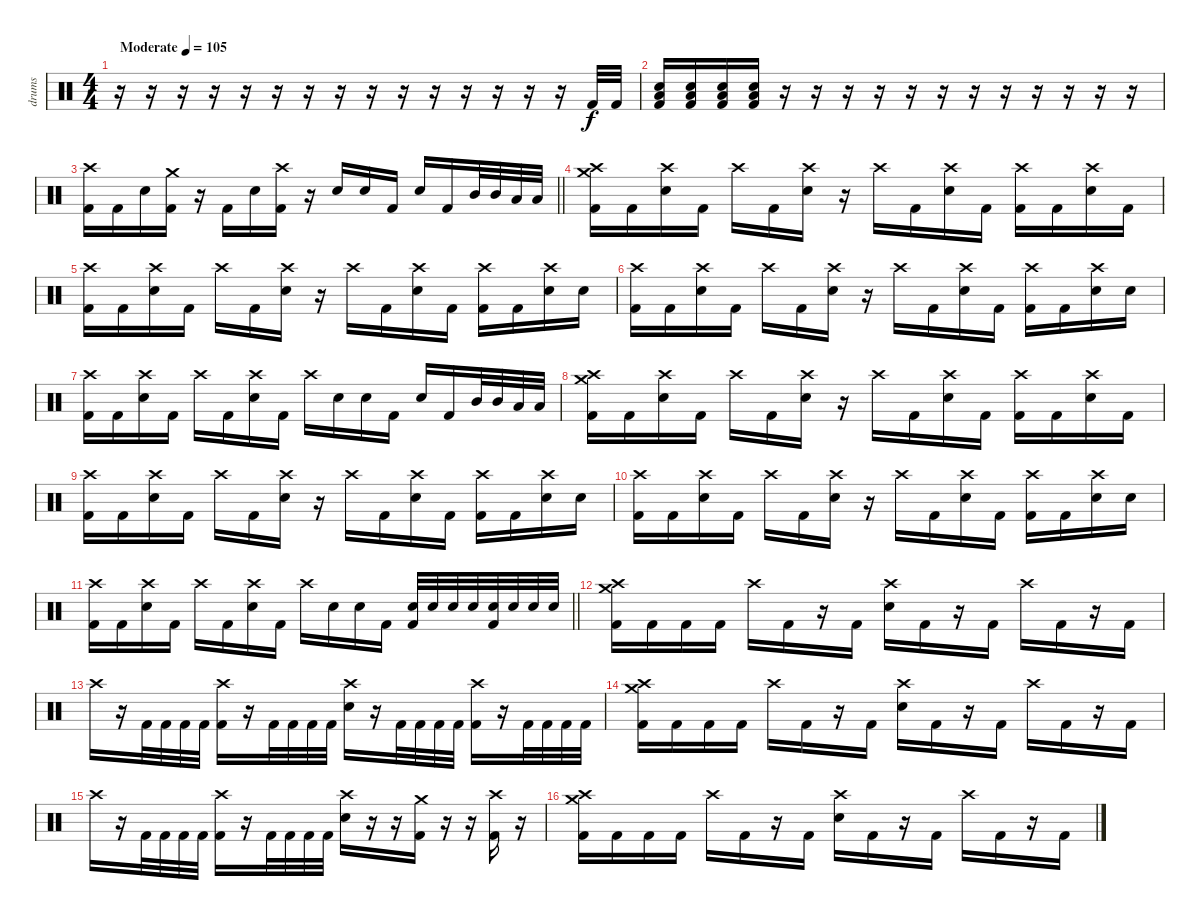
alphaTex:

\track ("drums" "drums") {instrument percussion}
\staff {score}
\articulation defaults
\ts (4 4)
\tempo (105 "Moderate")
\clef neutral
\ks c
r.16{dy f} r.16 r.16 r.16 r.16 r.16 r.16 r.16 r.16 r.16 r.16 r.16 r.16 r.16 r.16 "Kick (hit) 2".32 "Kick (hit) 2".32 |
("Kick (hit) 2" "Low Floor Tom (hit)" "Electric Snare (hit)").16 ("Kick (hit) 2" "Low Floor Tom (hit)" "Electric Snare (hit)").16 ("Kick (hit) 2" "Low Floor Tom (hit)" "Electric Snare (hit)").16 ("Kick (hit) 2" "Low Floor Tom (hit)" "Electric Snare (hit)").16 r.16 r.16 r.16 r.16 r.16 r.16 r.16 r.16 r.16 r.16 r.16 r.16 |
\barLineRight lightlight
("Crash high (hit)" "Kick (hit) 2").16 "Kick (hit) 2".16 "Electric Snare (hit)".16 ("Crash medium (hit)" "Kick (hit) 2").16 r.16 "Kick (hit) 2".16 "Electric Snare (hit)".16 ("Crash high (hit)" "Kick (hit) 2").16 r.16 "Electric Snare (hit)".16 "Electric Snare (hit)".16 "Kick (hit) 2".16 "Electric Snare (hit)".16 "Kick (hit) 2".16 "Mid Tom (hit)".32 "Mid Tom (hit)".32 "Low Tom (hit)".32 "Low Tom (hit)".32 |
\section ("" "")
("Crash medium (hit)" "Crash high (hit)" "Kick (hit) 2").16 "Kick (hit) 2".16 ("Crash high (hit)" "Electric Snare (hit)").16 "Kick (hit) 2".16 "Crash high (hit)".16 "Kick (hit) 2".16 ("Crash high (hit)" "Electric Snare (hit)").16 r.16 "Crash high (hit)".16 "Kick (hit) 2".16 ("Crash high (hit)" "Electric Snare (hit)").16 "Kick (hit) 2".16 ("Crash high (hit)" "Kick (hit) 2").16 "Kick (hit) 2".16 ("Crash high (hit)" "Electric Snare (hit)").16 "Kick (hit) 2".16 |
("Crash high (hit)" "Kick (hit) 2").16 "Kick (hit) 2".16 ("Crash high (hit)" "Electric Snare (hit)").16 "Kick (hit) 2".16 "Crash high (hit)".16 "Kick (hit) 2".16 ("Crash high (hit)" "Electric Snare (hit)").16 r.16 "Crash high (hit)".16 "Kick (hit) 2".16 ("Crash high (hit)" "Electric Snare (hit)").16 "Kick (hit) 2".16 ("Crash high (hit)" "Kick (hit) 2").16 "Kick (hit) 2".16 ("Crash high (hit)" "Electric Snare (hit)").16 "Electric Snare (hit)".16 |
("Crash high (hit)" "Kick (hit) 2").16 "Kick (hit) 2".16 ("Crash high (hit)" "Electric Snare (hit)").16 "Kick (hit) 2".16 "Crash high (hit)".16 "Kick (hit) 2".16 ("Crash high (hit)" "Electric Snare (hit)").16 r.16 "Crash high (hit)".16 "Kick (hit) 2".16 ("Crash high (hit)" "Electric Snare (hit)").16 "Kick (hit) 2".16 ("Crash high (hit)" "Kick (hit) 2").16 "Kick (hit) 2".16 ("Crash high (hit)" "Electric Snare (hit)").16 "Electric Snare (hit)".16 |
("Crash high (hit)" "Kick (hit) 2").16 "Kick (hit) 2".16 ("Crash high (hit)" "Electric Snare (hit)").16 "Kick (hit) 2".16 "Crash high (hit)".16 "Kick (hit) 2".16 ("Crash high (hit)" "Electric Snare (hit)").16 "Kick (hit) 2".16 "Crash high (hit)".16 "Electric Snare (hit)".16 "Electric Snare (hit)".16 "Kick (hit) 2".16 "Electric Snare (hit)".16 "Kick (hit) 2".16 "Mid Tom (hit)".32 "Mid Tom (hit)".32 "Low Tom (hit)".32 "Low Tom (hit)".32 |
("Crash medium (hit)" "Crash high (hit)" "Kick (hit) 2").16 "Kick (hit) 2".16 ("Crash high (hit)" "Electric Snare (hit)").16 "Kick (hit) 2".16 "Crash high (hit)".16 "Kick (hit) 2".16 ("Crash high (hit)" "Electric Snare (hit)").16 r.16 "Crash high (hit)".16 "Kick (hit) 2".16 ("Crash high (hit)" "Electric Snare (hit)").16 "Kick (hit) 2".16 ("Crash high (hit)" "Kick (hit) 2").16 "Kick (hit) 2".16 ("Crash high (hit)" "Electric Snare (hit)").16 "Kick (hit) 2".16 |
("Crash high (hit)" "Kick (hit) 2").16 "Kick (hit) 2".16 ("Crash high (hit)" "Electric Snare (hit)").16 "Kick (hit) 2".16 "Crash high (hit)".16 "Kick (hit) 2".16 ("Crash high (hit)" "Electric Snare (hit)").16 r.16 "Crash high (hit)".16 "Kick (hit) 2".16 ("Crash high (hit)" "Electric Snare (hit)").16 "Kick (hit) 2".16 ("Crash high (hit)" "Kick (hit) 2").16 "Kick (hit) 2".16 ("Crash high (hit)" "Electric Snare (hit)").16 "Electric Snare (hit)".16 |
("Crash high (hit)" "Kick (hit) 2").16 "Kick (hit) 2".16 ("Crash high (hit)" "Electric Snare (hit)").16 "Kick (hit) 2".16 "Crash high (hit)".16 "Kick (hit) 2".16 ("Crash high (hit)" "Electric Snare (hit)").16 r.16 "Crash high (hit)".16 "Kick (hit) 2".16 ("Crash high (hit)" "Electric Snare (hit)").16 "Kick (hit) 2".16 ("Crash high (hit)" "Kick (hit) 2").16 "Kick (hit) 2".16 ("Crash high (hit)" "Electric Snare (hit)").16 "Electric Snare (hit)".16 |
\barLineRight lightlight
("Crash high (hit)" "Kick (hit) 2").16 "Kick (hit) 2".16 ("Crash high (hit)" "Electric Snare (hit)").16 "Kick (hit) 2".16 "Crash high (hit)".16 "Kick (hit) 2".16 ("Crash high (hit)" "Electric Snare (hit)").16 "Kick (hit) 2".16 "Crash high (hit)".16 "Electric Snare (hit)".16 "Electric Snare (hit)".16 "Kick (hit) 2".16 ("Kick (hit) 2" "Electric Snare (hit)").32 "Electric Snare (hit)".32 "Electric Snare (hit)".32 "Electric Snare (hit)".32 ("Kick (hit) 2" "Electric Snare (hit)").32 "Electric Snare (hit)".32 "Electric Snare (hit)".32 "Electric Snare (hit)".32 |
\section ("" "")
("Crash medium (hit)" "Crash high (hit)" "Kick (hit) 2").16 "Kick (hit) 2".16 "Kick (hit) 2".16 "Kick (hit) 2".16 "Crash high (hit)".16 "Kick (hit) 2".16 r.16 "Kick (hit) 2".16 ("Crash high (hit)" "Electric Snare (hit)").16 "Kick (hit) 2".16 r.16 "Kick (hit) 2".16 "Crash high (hit)".16 "Kick (hit) 2".16 r.16 "Kick (hit) 2".16 |
"Crash high (hit)".16 r.16 "Kick (hit) 2".32 "Kick (hit) 2".32 "Kick (hit) 2".32 "Kick (hit) 2".32 ("Crash high (hit)" "Kick (hit) 2").16 r.16 "Kick (hit) 2".32 "Kick (hit) 2".32 "Kick (hit) 2".32 "Kick (hit) 2".32 ("Crash high (hit)" "Electric Snare (hit)").16 r.16 "Kick (hit) 2".32 "Kick (hit) 2".32 "Kick (hit) 2".32 "Kick (hit) 2".32 ("Crash high (hit)" "Kick (hit) 2").16 r.16 "Kick (hit) 2".32 "Kick (hit) 2".32 "Kick (hit) 2".32 "Kick (hit) 2".32 |
("Crash medium (hit)" "Crash high (hit)" "Kick (hit) 2").16 "Kick (hit) 2".16 "Kick (hit) 2".16 "Kick (hit) 2".16 "Crash high (hit)".16 "Kick (hit) 2".16 r.16 "Kick (hit) 2".16 ("Crash high (hit)" "Electric Snare (hit)").16 "Kick (hit) 2".16 r.16 "Kick (hit) 2".16 "Crash high (hit)".16 "Kick (hit) 2".16 r.16 "Kick (hit) 2".16 |
"Crash high (hit)".16 r.16 "Kick (hit) 2".32 "Kick (hit) 2".32 "Kick (hit) 2".32 "Kick (hit) 2".32 ("Crash high (hit)" "Kick (hit) 2").16 r.16 "Kick (hit) 2".32 "Kick (hit) 2".32 "Kick (hit) 2".32 "Kick (hit) 2".32 ("Crash high (hit)" "Electric Snare (hit)").16 r.16 r.16 ("Crash medium (hit)" "Kick (hit) 2").16 r.16 r.16 ("Crash high (hit)" "Kick (hit) 2").16 r.16 |
("Crash medium (hit)" "Crash high (hit)" "Kick (hit) 2").16 "Kick (hit) 2".16 "Kick (hit) 2".16 "Kick (hit) 2".16 "Crash high (hit)".16 "Kick (hit) 2".16 r.16 "Kick (hit) 2".16 ("Crash high (hit)" "Electric Snare (hit)").16 "Kick (hit) 2".16 r.16 "Kick (hit) 2".16 "Crash high (hit)".16 "Kick (hit) 2".16 r.16 "Kick (hit) 2".16
